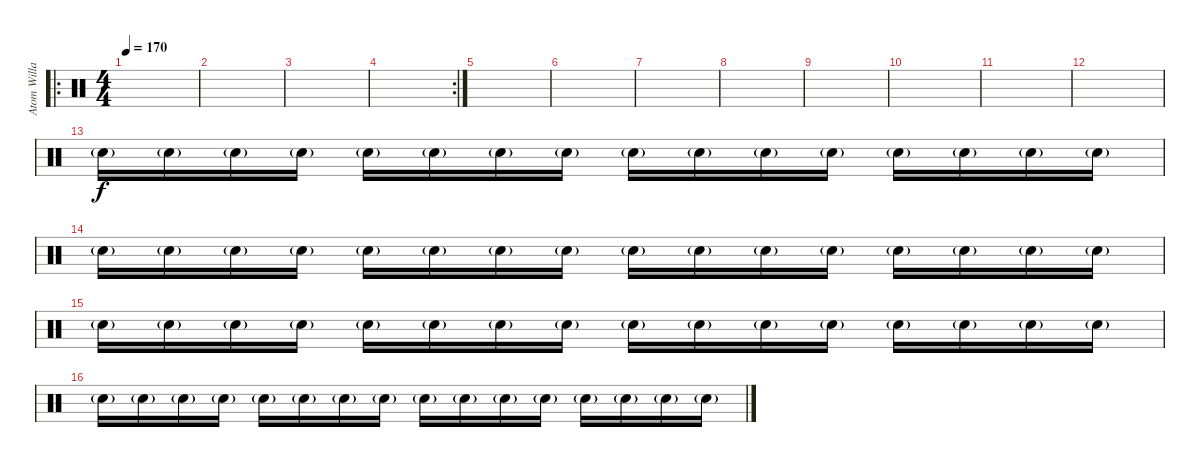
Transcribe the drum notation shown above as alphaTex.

\track ("Atom Willard" "Atom Willa") {instrument percussion}
\staff {score}
\articulation defaults
\ro
\ts (4 4)
\tempo 170
\clef neutral
\ks c
|
|
|
\rc 2
|
|
|
|
|
|
|
|
|
"Electric Snare (hit)"{g}.16 "Electric Snare (hit)"{g}.16 "Electric Snare (hit)"{g}.16 "Electric Snare (hit)"{g}.16 "Electric Snare (hit)"{g}.16 "Electric Snare (hit)"{g}.16 "Electric Snare (hit)"{g}.16 "Electric Snare (hit)"{g}.16 "Electric Snare (hit)"{g}.16 "Electric Snare (hit)"{g}.16 "Electric Snare (hit)"{g}.16 "Electric Snare (hit)"{g}.16 "Electric Snare (hit)"{g}.16 "Electric Snare (hit)"{g}.16 "Electric Snare (hit)"{g}.16 "Electric Snare (hit)"{g}.16 |
"Electric Snare (hit)"{g}.16 "Electric Snare (hit)"{g}.16 "Electric Snare (hit)"{g}.16 "Electric Snare (hit)"{g}.16 "Electric Snare (hit)"{g}.16 "Electric Snare (hit)"{g}.16 "Electric Snare (hit)"{g}.16 "Electric Snare (hit)"{g}.16 "Electric Snare (hit)"{g}.16 "Electric Snare (hit)"{g}.16 "Electric Snare (hit)"{g}.16 "Electric Snare (hit)"{g}.16 "Electric Snare (hit)"{g}.16 "Electric Snare (hit)"{g}.16 "Electric Snare (hit)"{g}.16 "Electric Snare (hit)"{g}.16 |
"Electric Snare (hit)"{g}.16 "Electric Snare (hit)"{g}.16 "Electric Snare (hit)"{g}.16 "Electric Snare (hit)"{g}.16 "Electric Snare (hit)"{g}.16 "Electric Snare (hit)"{g}.16 "Electric Snare (hit)"{g}.16 "Electric Snare (hit)"{g}.16 "Electric Snare (hit)"{g}.16 "Electric Snare (hit)"{g}.16 "Electric Snare (hit)"{g}.16 "Electric Snare (hit)"{g}.16 "Electric Snare (hit)"{g}.16 "Electric Snare (hit)"{g}.16 "Electric Snare (hit)"{g}.16 "Electric Snare (hit)"{g}.16 |
"Electric Snare (hit)"{g}.16 "Electric Snare (hit)"{g}.16 "Electric Snare (hit)"{g}.16 "Electric Snare (hit)"{g}.16 "Electric Snare (hit)"{g}.16 "Electric Snare (hit)"{g}.16 "Electric Snare (hit)"{g}.16 "Electric Snare (hit)"{g}.16 "Electric Snare (hit)"{g}.16 "Electric Snare (hit)"{g}.16 "Electric Snare (hit)"{g}.16 "Electric Snare (hit)"{g}.16 "Electric Snare (hit)"{g}.16 "Electric Snare (hit)"{g}.16 "Electric Snare (hit)"{g}.16 "Electric Snare (hit)"{g}.16
